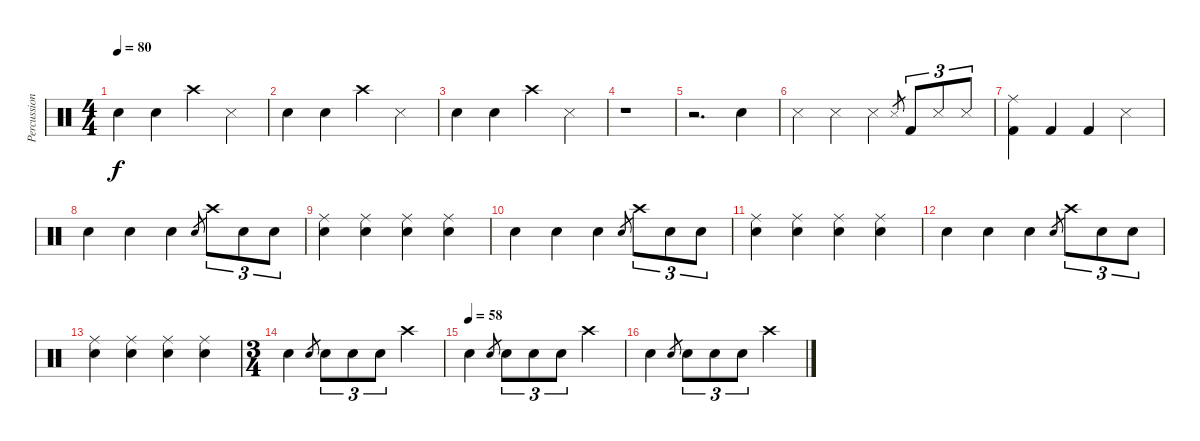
\track ("Percussions" "Percussion") {instrument percussion}
\staff {score}
\articulation defaults
\ts (4 4)
\tempo 80
\clef neutral
\ks c "Snare (hit) 2".4{dy f} "Electric Snare (hit)".4 "Crash high (hit)".4 "Snare (side stick) 3".4
|
"Electric Snare (hit)".4 "Electric Snare (hit)".4 "Crash high (hit)".4 "Snare (side stick) 3".4 |
"Electric Snare (hit)".4 "Electric Snare (hit)".4 "Crash high (hit)".4 "Snare (side stick) 3".4 |
r.1 |
r.2{d} "Electric Snare (hit)".4 |
"Snare (side stick) 3".4 "Snare (side stick) 3".4 "Snare (side stick) 3".4 "Snare (side stick) 3".8{gr} "Kick (hit) 2".8{tu (3 2)} "Snare (side stick) 3".8{tu (3 2)} "Snare (side stick) 3".8{tu (3 2)} |
("Ride (middle)" "Kick (hit) 2").4 "Kick (hit) 2".4 "Kick (hit) 2".4 "Snare (side stick) 3".4 |
"Snare (hit) 2".4 "Snare (hit) 2".4 "Snare (hit) 2".4 "Snare (hit) 2".8{gr} "Crash high (hit)".8{tu (3 2)} "Electric Snare (hit)".8{tu (3 2)} "Electric Snare (hit)".8{tu (3 2)} |
("Ride (middle)" "Snare (hit) 2").4 ("Ride (middle)" "Snare (hit) 2").4 ("Ride (middle)" "Snare (hit) 2").4 ("Ride (middle)" "Electric Snare (hit)").4 |
"Snare (hit) 2".4 "Snare (hit) 2".4 "Snare (hit) 2".4 "Snare (hit) 2".8{gr} "Crash high (hit)".8{tu (3 2)} "Electric Snare (hit)".8{tu (3 2)} "Electric Snare (hit)".8{tu (3 2)} |
("Ride (middle)" "Snare (hit) 2").4 ("Ride (middle)" "Snare (hit) 2").4 ("Ride (middle)" "Snare (hit) 2").4 ("Ride (middle)" "Electric Snare (hit)").4 |
"Snare (hit) 2".4 "Snare (hit) 2".4 "Snare (hit) 2".4 "Snare (hit) 2".8{gr} "Crash high (hit)".8{tu (3 2)} "Electric Snare (hit)".8{tu (3 2)} "Electric Snare (hit)".8{tu (3 2)} |
("Ride (middle)" "Snare (hit) 2").4 ("Ride (middle)" "Snare (hit) 2").4 ("Ride (middle)" "Snare (hit) 2").4 ("Ride (middle)" "Electric Snare (hit)").4 |
\ts (3 4)
"Snare (hit) 2".4 "Electric Snare (hit)".8{gr} "Snare (hit) 2".8{tu (3 2)} "Snare (hit) 2".8{tu (3 2)} "Electric Snare (hit)".8{tu (3 2)} "Crash high (hit)".4 |
\tempo (58)
"Snare (hit) 2".4 "Electric Snare (hit)".8{gr} "Snare (hit) 2".8{tu (3 2)} "Snare (hit) 2".8{tu (3 2)} "Electric Snare (hit)".8{tu (3 2)} "Crash high (hit)".4 |
"Snare (hit) 2".4 "Electric Snare (hit)".8{gr} "Snare (hit) 2".8{tu (3 2)} "Snare (hit) 2".8{tu (3 2)} "Electric Snare (hit)".8{tu (3 2)} "Crash high (hit)".4
